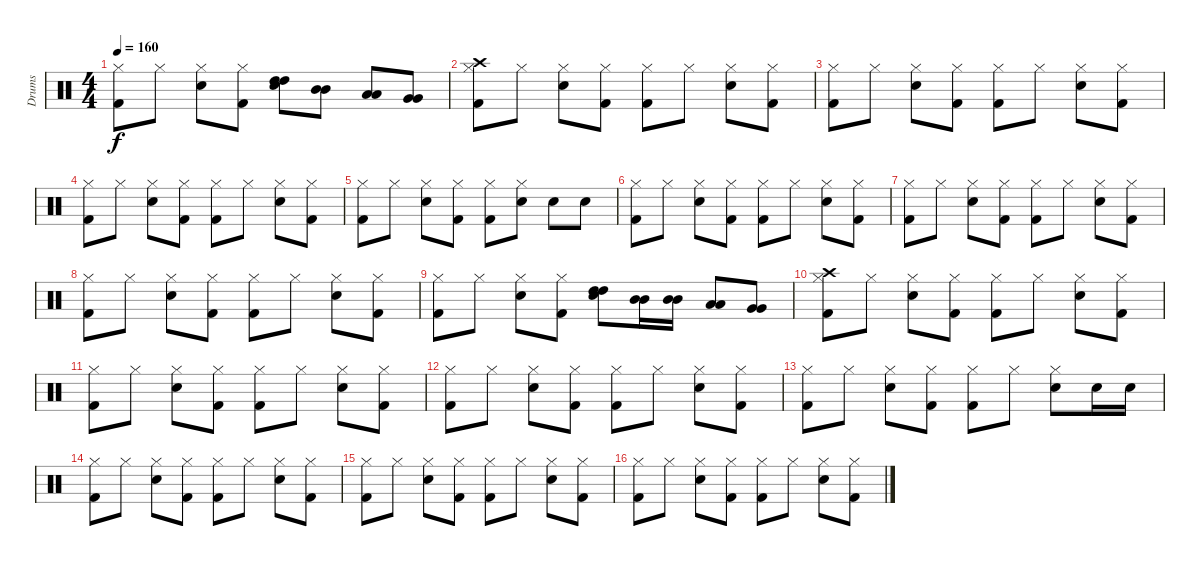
\track ("Drums" "Drums") {instrument percussion}
\staff {score}
\articulation defaults
\ts (4 4)
\tempo 160
\clef neutral
\ks c
("Hi-Hat (closed)" "Kick (hit) 2").8{dy f} "Hi-Hat (closed)".8 ("Hi-Hat (closed)" "Electric Snare (hit)").8 ("Hi-Hat (closed)" "Kick (hit) 2").8 ("High Tom (hit)" "High Tom (hit)" "Electric Snare (hit)").8 ("Mid Tom (hit)" "Mid Tom (hit)").8 ("Low Tom (hit)" "Low Tom (hit)").8 ("Very Low Tom (hit)" "Very Low Tom (hit)").8 |
("Hi-Hat (closed)" "Kick (hit) 2" "Crash high (hit)").8 "Hi-Hat (closed)".8 ("Hi-Hat (closed)" "Electric Snare (hit)").8 ("Hi-Hat (closed)" "Kick (hit) 2").8 ("Hi-Hat (closed)" "Kick (hit) 2").8 "Hi-Hat (closed)".8 ("Hi-Hat (closed)" "Electric Snare (hit)").8 ("Hi-Hat (closed)" "Kick (hit) 2").8 |
("Hi-Hat (closed)" "Kick (hit) 2").8 "Hi-Hat (closed)".8 ("Hi-Hat (closed)" "Electric Snare (hit)").8 ("Hi-Hat (closed)" "Kick (hit) 2").8 ("Hi-Hat (closed)" "Kick (hit) 2").8 "Hi-Hat (closed)".8 ("Hi-Hat (closed)" "Electric Snare (hit)").8 ("Hi-Hat (closed)" "Kick (hit) 2").8 |
("Hi-Hat (closed)" "Kick (hit) 2").8 "Hi-Hat (closed)".8 ("Hi-Hat (closed)" "Electric Snare (hit)").8 ("Hi-Hat (closed)" "Kick (hit) 2").8 ("Hi-Hat (closed)" "Kick (hit) 2").8 "Hi-Hat (closed)".8 ("Hi-Hat (closed)" "Electric Snare (hit)").8 ("Hi-Hat (closed)" "Kick (hit) 2").8 |
("Hi-Hat (closed)" "Kick (hit) 2").8 "Hi-Hat (closed)".8 ("Hi-Hat (closed)" "Electric Snare (hit)").8 ("Hi-Hat (closed)" "Kick (hit) 2").8 ("Hi-Hat (closed)" "Kick (hit) 2").8 ("Electric Snare (hit)" "Hi-Hat (closed)").8 "Electric Snare (hit)".8 "Electric Snare (hit)".8 |
("Hi-Hat (closed)" "Kick (hit) 2").8 "Hi-Hat (closed)".8 ("Hi-Hat (closed)" "Electric Snare (hit)").8 ("Hi-Hat (closed)" "Kick (hit) 2").8 ("Hi-Hat (closed)" "Kick (hit) 2").8 "Hi-Hat (closed)".8 ("Hi-Hat (closed)" "Electric Snare (hit)").8 ("Hi-Hat (closed)" "Kick (hit) 2").8 |
("Hi-Hat (closed)" "Kick (hit) 2").8 "Hi-Hat (closed)".8 ("Hi-Hat (closed)" "Electric Snare (hit)").8 ("Hi-Hat (closed)" "Kick (hit) 2").8 ("Hi-Hat (closed)" "Kick (hit) 2").8 "Hi-Hat (closed)".8 ("Hi-Hat (closed)" "Electric Snare (hit)").8 ("Hi-Hat (closed)" "Kick (hit) 2").8 |
("Hi-Hat (closed)" "Kick (hit) 2").8 "Hi-Hat (closed)".8 ("Hi-Hat (closed)" "Electric Snare (hit)").8 ("Hi-Hat (closed)" "Kick (hit) 2").8 ("Hi-Hat (closed)" "Kick (hit) 2").8 "Hi-Hat (closed)".8 ("Hi-Hat (closed)" "Electric Snare (hit)").8 ("Hi-Hat (closed)" "Kick (hit) 2").8 |
("Hi-Hat (closed)" "Kick (hit) 2").8 "Hi-Hat (closed)".8 ("Hi-Hat (closed)" "Electric Snare (hit)").8 ("Hi-Hat (closed)" "Kick (hit) 2").8 ("High Tom (hit)" "High Tom (hit)" "Electric Snare (hit)").8 ("Mid Tom (hit)" "Mid Tom (hit)").16 ("Mid Tom (hit)" "Mid Tom (hit)").16 ("Low Tom (hit)" "Low Tom (hit)").8 ("Very Low Tom (hit)" "Very Low Tom (hit)").8 |
("Hi-Hat (closed)" "Crash high (hit)" "Kick (hit) 2").8 "Hi-Hat (closed)".8 ("Hi-Hat (closed)" "Electric Snare (hit)").8 ("Hi-Hat (closed)" "Kick (hit) 2").8 ("Hi-Hat (closed)" "Kick (hit) 2").8 "Hi-Hat (closed)".8 ("Hi-Hat (closed)" "Electric Snare (hit)").8 ("Hi-Hat (closed)" "Kick (hit) 2").8 |
("Hi-Hat (closed)" "Kick (hit) 2").8 "Hi-Hat (closed)".8 ("Hi-Hat (closed)" "Electric Snare (hit)").8 ("Hi-Hat (closed)" "Kick (hit) 2").8 ("Hi-Hat (closed)" "Kick (hit) 2").8 "Hi-Hat (closed)".8 ("Hi-Hat (closed)" "Electric Snare (hit)").8 ("Hi-Hat (closed)" "Kick (hit) 2").8 |
("Hi-Hat (closed)" "Kick (hit) 2").8 "Hi-Hat (closed)".8 ("Hi-Hat (closed)" "Electric Snare (hit)").8 ("Hi-Hat (closed)" "Kick (hit) 2").8 ("Hi-Hat (closed)" "Kick (hit) 2").8 "Hi-Hat (closed)".8 ("Hi-Hat (closed)" "Electric Snare (hit)").8 ("Hi-Hat (closed)" "Kick (hit) 2").8 |
("Hi-Hat (closed)" "Kick (hit) 2").8 "Hi-Hat (closed)".8 ("Hi-Hat (closed)" "Electric Snare (hit)").8 ("Hi-Hat (closed)" "Kick (hit) 2").8 ("Hi-Hat (closed)" "Kick (hit) 2").8 "Hi-Hat (closed)".8 ("Hi-Hat (closed)" "Electric Snare (hit)").8 "Electric Snare (hit)".16 "Electric Snare (hit)".16 |
("Hi-Hat (closed)" "Kick (hit) 2").8 "Hi-Hat (closed)".8 ("Hi-Hat (closed)" "Electric Snare (hit)").8 ("Hi-Hat (closed)" "Kick (hit) 2").8 ("Hi-Hat (closed)" "Kick (hit) 2").8 "Hi-Hat (closed)".8 ("Hi-Hat (closed)" "Electric Snare (hit)").8 ("Hi-Hat (closed)" "Kick (hit) 2").8 |
("Hi-Hat (closed)" "Kick (hit) 2").8 "Hi-Hat (closed)".8 ("Hi-Hat (closed)" "Electric Snare (hit)").8 ("Hi-Hat (closed)" "Kick (hit) 2").8 ("Hi-Hat (closed)" "Kick (hit) 2").8 "Hi-Hat (closed)".8 ("Hi-Hat (closed)" "Electric Snare (hit)").8 ("Hi-Hat (closed)" "Kick (hit) 2").8 |
("Hi-Hat (closed)" "Kick (hit) 2").8 "Hi-Hat (closed)".8 ("Hi-Hat (closed)" "Electric Snare (hit)").8 ("Hi-Hat (closed)" "Kick (hit) 2").8 ("Hi-Hat (closed)" "Kick (hit) 2").8 "Hi-Hat (closed)".8 ("Hi-Hat (closed)" "Electric Snare (hit)").8 ("Hi-Hat (closed)" "Kick (hit) 2").8
